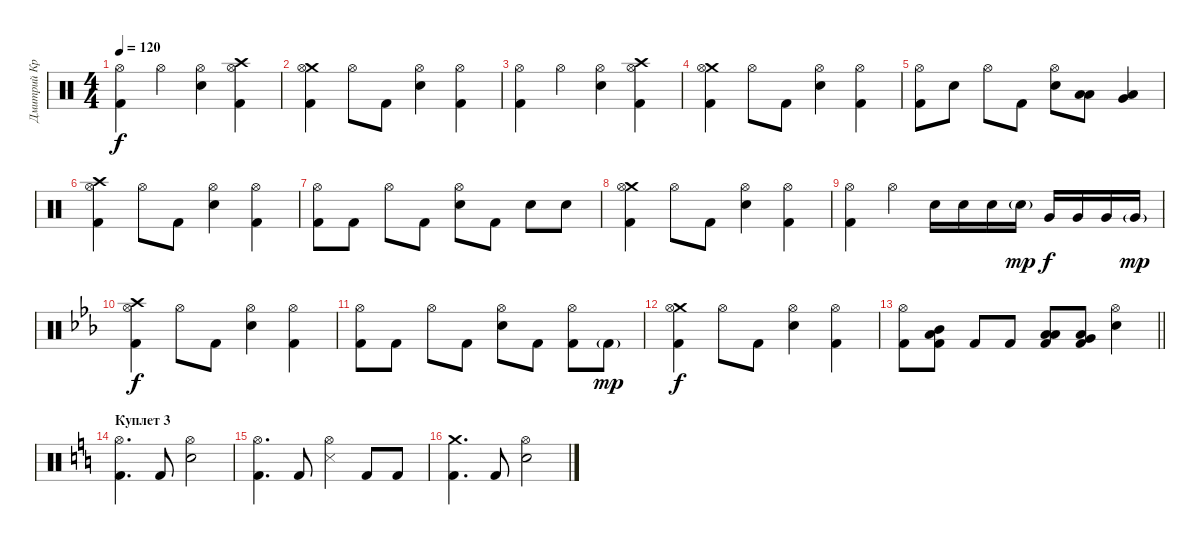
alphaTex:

\track ("Дмитрий Кривенков       (Ударные)" "Дмитрий Кр") {instrument percussion}
\staff {score}
\articulation defaults
\ts (4 4)
\tempo 120
\clef neutral
\ks c
("Hi-Hat (open)" "Kick (hit) 2").4{dy f} "Hi-Hat (open)".4 ("Hi-Hat (open)" "Electric Snare (hit)").4 ("Crash high (hit)" "Hi-Hat (open)" "Kick (hit) 2").4 |
("Crash medium (hit)" "Hi-Hat (open)" "Kick (hit) 2").4 "Hi-Hat (open)".8 "Kick (hit) 2".8 ("Hi-Hat (open)" "Electric Snare (hit)").4 ("Hi-Hat (open)" "Kick (hit) 2").4 |
("Hi-Hat (open)" "Kick (hit) 2").4 "Hi-Hat (open)".4 ("Hi-Hat (open)" "Electric Snare (hit)").4 ("Crash high (hit)" "Hi-Hat (open)" "Kick (hit) 2").4 |
("Crash medium (hit)" "Hi-Hat (open)" "Kick (hit) 2").4 "Hi-Hat (open)".8 "Kick (hit) 2".8 ("Hi-Hat (open)" "Electric Snare (hit)").4 ("Hi-Hat (open)" "Kick (hit) 2").4 |
("Hi-Hat (open)" "Kick (hit) 2").8 "Electric Snare (hit)".8 "Hi-Hat (open)".8 "Kick (hit) 2".8 ("Hi-Hat (open)" "Electric Snare (hit)").8 ("Low Tom (hit)" "Low Floor Tom (hit)").8 ("Very Low Tom (hit)" "Low Floor Tom (hit)").4 |
("Crash high (hit)" "Hi-Hat (open)" "Kick (hit) 2").4 "Hi-Hat (open)".8 "Kick (hit) 2".8 ("Hi-Hat (open)" "Electric Snare (hit)").4 ("Hi-Hat (open)" "Kick (hit) 2").4 |
("Hi-Hat (open)" "Kick (hit) 2").8 "Kick (hit) 2".8 "Hi-Hat (open)".8 "Kick (hit) 2".8 ("Hi-Hat (open)" "Electric Snare (hit)").8 "Kick (hit) 2".8 "Electric Snare (hit)".8 "Electric Snare (hit)".8 |
("Crash medium (hit)" "Hi-Hat (open)" "Kick (hit) 2").4 "Hi-Hat (open)".8 "Kick (hit) 2".8 ("Hi-Hat (open)" "Electric Snare (hit)").4 ("Hi-Hat (open)" "Kick (hit) 2").4 |
("Hi-Hat (open)" "Kick (hit) 2").4 "Hi-Hat (open)".4 "Electric Snare (hit)".16 "Electric Snare (hit)".16 "Electric Snare (hit)".16 "Electric Snare (hit)"{g}.16{dy mp} "Very Low Tom (hit)".16{dy f} "Very Low Tom (hit)".16 "Very Low Tom (hit)".16 "Very Low Tom (hit)"{g}.16{dy mp} |
\ks eb
("Crash high (hit)" "Hi-Hat (open)" "Kick (hit) 2").4{dy f} "Hi-Hat (open)".8 "Kick (hit) 2".8 ("Hi-Hat (open)" "Electric Snare (hit)").4 ("Hi-Hat (open)" "Kick (hit) 2").4 |
("Hi-Hat (open)" "Kick (hit) 2").8 "Kick (hit) 2".8 "Hi-Hat (open)".8 "Kick (hit) 2".8 ("Hi-Hat (open)" "Electric Snare (hit)").8 "Kick (hit) 2".8 ("Hi-Hat (open)" "Kick (hit) 2").8 "Kick (hit) 2"{g}.8{dy mp} |
("Crash medium (hit)" "Hi-Hat (open)" "Kick (hit) 2").4{dy f} "Hi-Hat (open)".8 "Kick (hit) 2".8 ("Hi-Hat (open)" "Electric Snare (hit)").4 ("Hi-Hat (open)" "Kick (hit) 2").4 |
\barLineRight lightlight
("Hi-Hat (open)" "Kick (hit) 2").8 ("Mid Tom (hit)" "Low Floor Tom (hit)" "Kick (hit) 2").8 "Kick (hit) 2".8 "Kick (hit) 2".8 ("Low Tom (hit)" "Low Floor Tom (hit)" "Kick (hit) 2").8 ("Very Low Tom (hit)" "Low Floor Tom (hit)" "Kick (hit) 2").8 ("Hi-Hat (open)" "Electric Snare (hit)").4 |
\section ("" "Куплет 3")
\ks c
("Hi-Hat (open)" "Kick (hit) 2").4{d} "Kick (hit) 2".8 ("Hi-Hat (open)" "Electric Snare (hit)").2 |
("Hi-Hat (open)" "Kick (hit) 2").4{d} "Kick (hit) 2".8 ("Snare (side stick) 3" "Hi-Hat (open)").4 "Kick (hit) 2".8 "Kick (hit) 2".8 |
("Crash medium (hit)" "Kick (hit) 2").4{d} "Kick (hit) 2".8 ("Hi-Hat (open)" "Electric Snare (hit)").2
